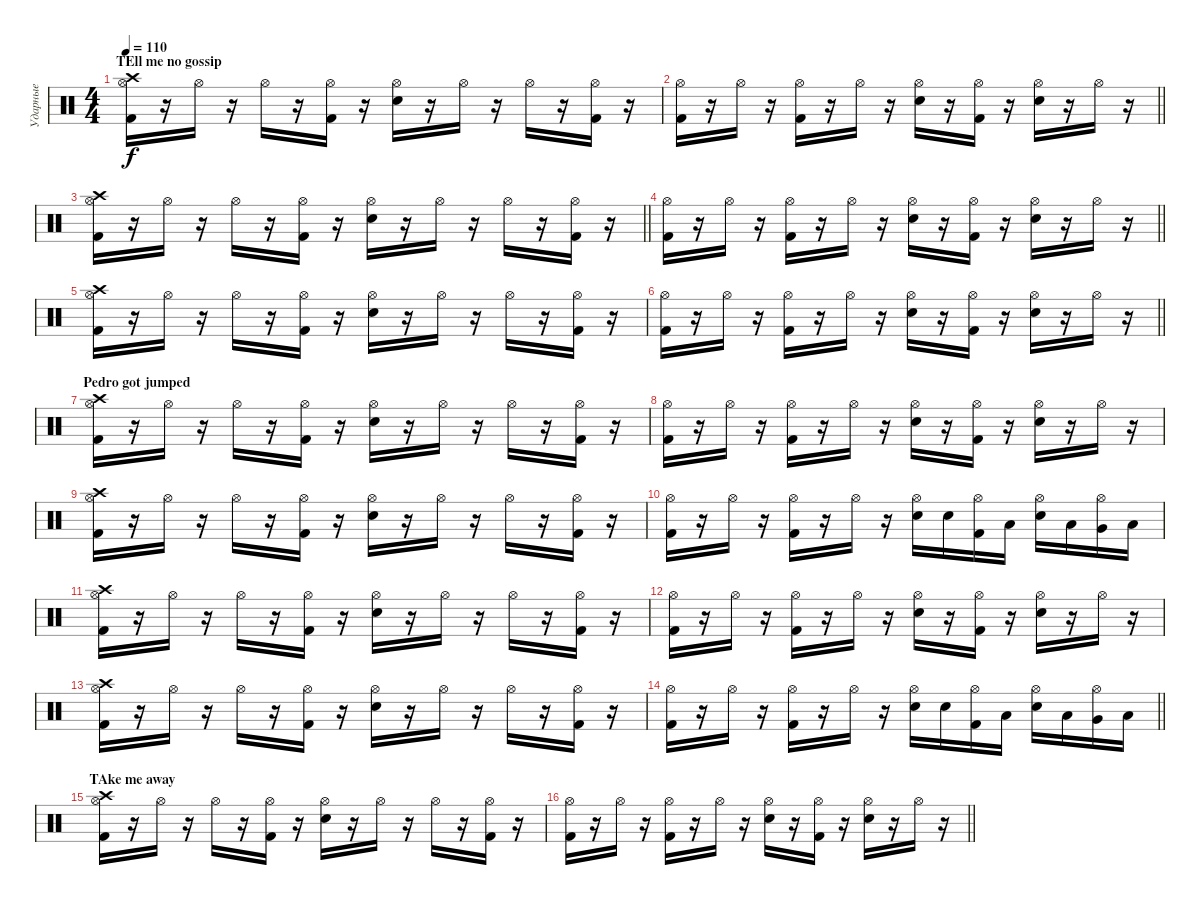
\track ("Ударные" "Ударные") {instrument percussion}
\staff {score}
\articulation defaults
\ts (4 4)
\section ("" "TEll me no gossip")
\tempo 110
\clef neutral
\ks c
("Crash high (hit)" "Hi-Hat (open)" "Kick (hit) 2").16{dy f} r.16 "Hi-Hat (open)".16 r.16 "Hi-Hat (open)".16 r.16 ("Hi-Hat (open)" "Kick (hit) 2").16 r.16 ("Hi-Hat (open)" "Electric Snare (hit)").16 r.16 "Hi-Hat (open)".16 r.16 "Hi-Hat (open)".16 r.16 ("Hi-Hat (open)" "Kick (hit) 2").16 r.16 |
\barLineRight lightlight
("Hi-Hat (open)" "Kick (hit) 2").16 r.16 "Hi-Hat (open)".16 r.16 ("Hi-Hat (open)" "Kick (hit) 2").16 r.16 "Hi-Hat (open)".16 r.16 ("Hi-Hat (open)" "Electric Snare (hit)").16 r.16 ("Hi-Hat (open)" "Kick (hit) 2").16 r.16 ("Hi-Hat (open)" "Electric Snare (hit)").16 r.16 "Hi-Hat (open)".16 r.16 |
\barLineRight lightlight
("Crash high (hit)" "Hi-Hat (open)" "Kick (hit) 2").16 r.16 "Hi-Hat (open)".16 r.16 "Hi-Hat (open)".16 r.16 ("Hi-Hat (open)" "Kick (hit) 2").16 r.16 ("Hi-Hat (open)" "Electric Snare (hit)").16 r.16 "Hi-Hat (open)".16 r.16 "Hi-Hat (open)".16 r.16 ("Hi-Hat (open)" "Kick (hit) 2").16 r.16 |
\barLineRight lightlight
("Hi-Hat (open)" "Kick (hit) 2").16 r.16 "Hi-Hat (open)".16 r.16 ("Hi-Hat (open)" "Kick (hit) 2").16 r.16 "Hi-Hat (open)".16 r.16 ("Hi-Hat (open)" "Electric Snare (hit)").16 r.16 ("Hi-Hat (open)" "Kick (hit) 2").16 r.16 ("Hi-Hat (open)" "Electric Snare (hit)").16 r.16 "Hi-Hat (open)".16 r.16 |
("Crash high (hit)" "Hi-Hat (open)" "Kick (hit) 2").16 r.16 "Hi-Hat (open)".16 r.16 "Hi-Hat (open)".16 r.16 ("Hi-Hat (open)" "Kick (hit) 2").16 r.16 ("Hi-Hat (open)" "Electric Snare (hit)").16 r.16 "Hi-Hat (open)".16 r.16 "Hi-Hat (open)".16 r.16 ("Hi-Hat (open)" "Kick (hit) 2").16 r.16 |
\barLineRight lightlight
("Hi-Hat (open)" "Kick (hit) 2").16 r.16 "Hi-Hat (open)".16 r.16 ("Hi-Hat (open)" "Kick (hit) 2").16 r.16 "Hi-Hat (open)".16 r.16 ("Hi-Hat (open)" "Electric Snare (hit)").16 r.16 ("Hi-Hat (open)" "Kick (hit) 2").16 r.16 ("Hi-Hat (open)" "Electric Snare (hit)").16 r.16 "Hi-Hat (open)".16 r.16 |
\section ("" "Pedro got jumped")
("Crash high (hit)" "Hi-Hat (open)" "Kick (hit) 2").16 r.16 "Hi-Hat (open)".16 r.16 "Hi-Hat (open)".16 r.16 ("Hi-Hat (open)" "Kick (hit) 2").16 r.16 ("Hi-Hat (open)" "Electric Snare (hit)").16 r.16 "Hi-Hat (open)".16 r.16 "Hi-Hat (open)".16 r.16 ("Hi-Hat (open)" "Kick (hit) 2").16 r.16 |
("Hi-Hat (open)" "Kick (hit) 2").16 r.16 "Hi-Hat (open)".16 r.16 ("Hi-Hat (open)" "Kick (hit) 2").16 r.16 "Hi-Hat (open)".16 r.16 ("Hi-Hat (open)" "Electric Snare (hit)").16 r.16 ("Hi-Hat (open)" "Kick (hit) 2").16 r.16 ("Hi-Hat (open)" "Electric Snare (hit)").16 r.16 "Hi-Hat (open)".16 r.16 |
("Crash high (hit)" "Hi-Hat (open)" "Kick (hit) 2").16 r.16 "Hi-Hat (open)".16 r.16 "Hi-Hat (open)".16 r.16 ("Hi-Hat (open)" "Kick (hit) 2").16 r.16 ("Hi-Hat (open)" "Electric Snare (hit)").16 r.16 "Hi-Hat (open)".16 r.16 "Hi-Hat (open)".16 r.16 ("Hi-Hat (open)" "Kick (hit) 2").16 r.16 |
("Hi-Hat (open)" "Kick (hit) 2").16 r.16 "Hi-Hat (open)".16 r.16 ("Hi-Hat (open)" "Kick (hit) 2").16 r.16 "Hi-Hat (open)".16 r.16 ("Hi-Hat (open)" "Electric Snare (hit)").16 "Electric Snare (hit)".16 ("Hi-Hat (open)" "Kick (hit) 2").16 "Low Floor Tom (hit)".16 ("Hi-Hat (open)" "Electric Snare (hit)").16 "Low Tom (hit)".16 ("Hi-Hat (open)" "Very Low Tom (hit)").16 "Low Floor Tom (hit)".16 |
("Crash high (hit)" "Hi-Hat (open)" "Kick (hit) 2").16 r.16 "Hi-Hat (open)".16 r.16 "Hi-Hat (open)".16 r.16 ("Hi-Hat (open)" "Kick (hit) 2").16 r.16 ("Hi-Hat (open)" "Electric Snare (hit)").16 r.16 "Hi-Hat (open)".16 r.16 "Hi-Hat (open)".16 r.16 ("Hi-Hat (open)" "Kick (hit) 2").16 r.16 |
("Hi-Hat (open)" "Kick (hit) 2").16 r.16 "Hi-Hat (open)".16 r.16 ("Hi-Hat (open)" "Kick (hit) 2").16 r.16 "Hi-Hat (open)".16 r.16 ("Hi-Hat (open)" "Electric Snare (hit)").16 r.16 ("Hi-Hat (open)" "Kick (hit) 2").16 r.16 ("Hi-Hat (open)" "Electric Snare (hit)").16 r.16 "Hi-Hat (open)".16 r.16 |
("Crash high (hit)" "Hi-Hat (open)" "Kick (hit) 2").16 r.16 "Hi-Hat (open)".16 r.16 "Hi-Hat (open)".16 r.16 ("Hi-Hat (open)" "Kick (hit) 2").16 r.16 ("Hi-Hat (open)" "Electric Snare (hit)").16 r.16 "Hi-Hat (open)".16 r.16 "Hi-Hat (open)".16 r.16 ("Hi-Hat (open)" "Kick (hit) 2").16 r.16 |
\barLineRight lightlight
("Hi-Hat (open)" "Kick (hit) 2").16 r.16 "Hi-Hat (open)".16 r.16 ("Hi-Hat (open)" "Kick (hit) 2").16 r.16 "Hi-Hat (open)".16 r.16 ("Hi-Hat (open)" "Electric Snare (hit)").16 "Electric Snare (hit)".16 ("Hi-Hat (open)" "Kick (hit) 2").16 "Low Floor Tom (hit)".16 ("Hi-Hat (open)" "Electric Snare (hit)").16 "Low Tom (hit)".16 ("Hi-Hat (open)" "Very Low Tom (hit)").16 "Low Floor Tom (hit)".16 |
\section ("" "TAke me away")
("Crash high (hit)" "Hi-Hat (open)" "Kick (hit) 2").16 r.16 "Hi-Hat (open)".16 r.16 "Hi-Hat (open)".16 r.16 ("Hi-Hat (open)" "Kick (hit) 2").16 r.16 ("Hi-Hat (open)" "Electric Snare (hit)").16 r.16 "Hi-Hat (open)".16 r.16 "Hi-Hat (open)".16 r.16 ("Hi-Hat (open)" "Kick (hit) 2").16 r.16 |
\barLineRight lightlight
("Hi-Hat (open)" "Kick (hit) 2").16 r.16 "Hi-Hat (open)".16 r.16 ("Hi-Hat (open)" "Kick (hit) 2").16 r.16 "Hi-Hat (open)".16 r.16 ("Hi-Hat (open)" "Electric Snare (hit)").16 r.16 ("Hi-Hat (open)" "Kick (hit) 2").16 r.16 ("Hi-Hat (open)" "Electric Snare (hit)").16 r.16 "Hi-Hat (open)".16 r.16
